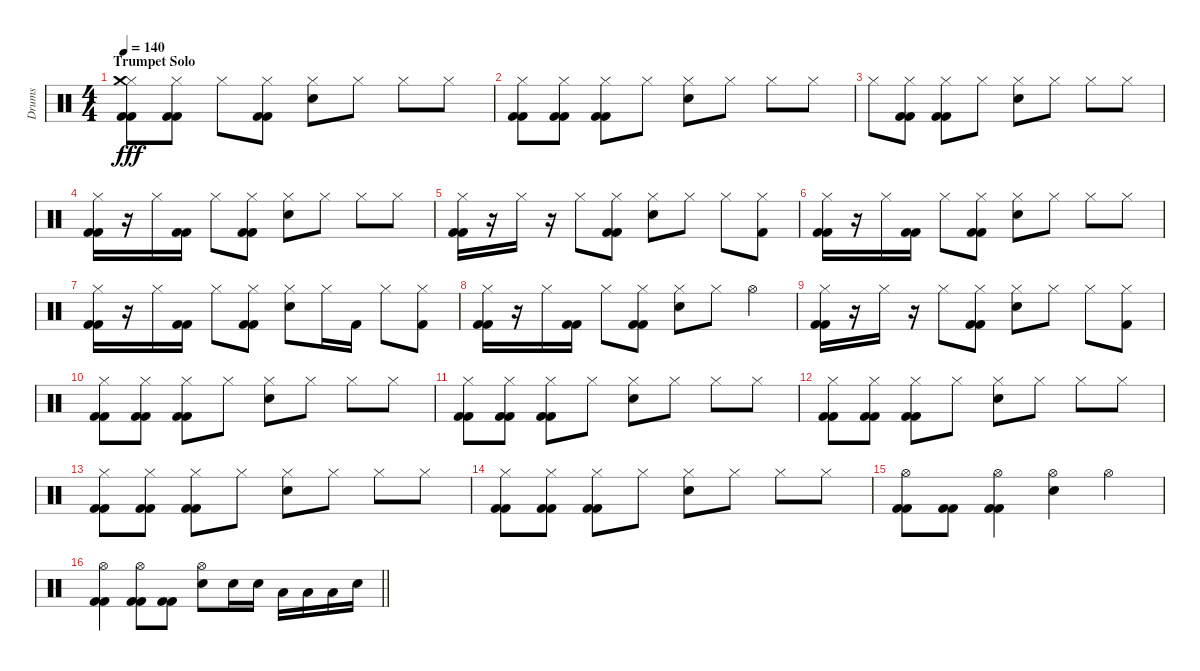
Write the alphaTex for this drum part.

\track ("Drums" "Drums") {instrument percussion}
\staff {score}
\articulation defaults
\ts (4 4)
\section ("" "Trumpet Solo")
\tempo 140
\clef neutral
\ks c
("Hi-Hat (closed)" "Kick (hit) 2" "Kick (hit) 2" "Crash medium (hit)").8{dy fff} ("Hi-Hat (closed)" "Kick (hit) 2" "Kick (hit) 2").8 "Hi-Hat (closed)".8 ("Kick (hit) 2" "Hi-Hat (closed)" "Kick (hit) 2").8 ("Hi-Hat (closed)" "Snare (hit) 2").8 "Hi-Hat (closed)".8 "Hi-Hat (closed)".8 "Hi-Hat (closed)".8 |
("Kick (hit) 2" "Hi-Hat (closed)" "Kick (hit) 2").8 ("Kick (hit) 2" "Hi-Hat (closed)" "Kick (hit) 2").8 ("Kick (hit) 2" "Hi-Hat (closed)" "Kick (hit) 2").8 "Hi-Hat (closed)".8 ("Snare (hit) 2" "Hi-Hat (closed)").8 "Hi-Hat (closed)".8 "Hi-Hat (closed)".8 "Hi-Hat (closed)".8 |
"Hi-Hat (closed)".8 ("Kick (hit) 2" "Hi-Hat (closed)" "Kick (hit) 2").8 ("Kick (hit) 2" "Hi-Hat (closed)" "Kick (hit) 2").8 "Hi-Hat (closed)".8 ("Snare (hit) 2" "Hi-Hat (closed)").8 "Hi-Hat (closed)".8 "Hi-Hat (closed)".8 "Hi-Hat (closed)".8 |
("Kick (hit) 2" "Hi-Hat (closed)" "Kick (hit) 2").16 r.16 "Hi-Hat (closed)".16 ("Kick (hit) 2" "Kick (hit) 2").16 "Hi-Hat (closed)".8 ("Kick (hit) 2" "Kick (hit) 2" "Hi-Hat (closed)").8 ("Snare (hit) 2" "Hi-Hat (closed)").8 "Hi-Hat (closed)".8 "Hi-Hat (closed)".8 "Hi-Hat (closed)".8 |
("Kick (hit) 2" "Hi-Hat (closed)" "Kick (hit) 2").16 r.16 "Hi-Hat (closed)".16 r.16 "Hi-Hat (closed)".8 ("Kick (hit) 2" "Kick (hit) 2" "Hi-Hat (closed)").8 ("Snare (hit) 2" "Hi-Hat (closed)").8 "Hi-Hat (closed)".8 "Hi-Hat (closed)".8 ("Hi-Hat (closed)" "Kick (hit) 2").8 |
("Kick (hit) 2" "Hi-Hat (closed)" "Kick (hit) 2").16 r.16 "Hi-Hat (closed)".16 ("Kick (hit) 2" "Kick (hit) 2").16 "Hi-Hat (closed)".8 ("Kick (hit) 2" "Kick (hit) 2" "Hi-Hat (closed)").8 ("Snare (hit) 2" "Hi-Hat (closed)").8 "Hi-Hat (closed)".8 "Hi-Hat (closed)".8 "Hi-Hat (closed)".8 |
("Kick (hit) 2" "Hi-Hat (closed)" "Kick (hit) 2").16 r.16 "Hi-Hat (closed)".16 ("Kick (hit) 2" "Kick (hit) 2").16 "Hi-Hat (closed)".8 ("Kick (hit) 2" "Kick (hit) 2" "Hi-Hat (closed)").8 ("Snare (hit) 2" "Hi-Hat (closed)").8 "Hi-Hat (closed)".16 "Kick (hit) 2".16 "Hi-Hat (closed)".8 ("Hi-Hat (closed)" "Kick (hit) 2").8 |
("Kick (hit) 2" "Hi-Hat (closed)" "Kick (hit) 2").16 r.16 "Hi-Hat (closed)".16 ("Kick (hit) 2" "Kick (hit) 2").16 "Hi-Hat (closed)".8 ("Kick (hit) 2" "Kick (hit) 2" "Hi-Hat (closed)").8 ("Snare (hit) 2" "Hi-Hat (closed)").8 "Hi-Hat (closed)".8 "Hi-Hat (open)".4 |
("Kick (hit) 2" "Hi-Hat (closed)" "Kick (hit) 2").16 r.16 "Hi-Hat (closed)".16 r.16 "Hi-Hat (closed)".8 ("Kick (hit) 2" "Kick (hit) 2" "Hi-Hat (closed)").8 ("Snare (hit) 2" "Hi-Hat (closed)").8 "Hi-Hat (closed)".8 "Hi-Hat (closed)".8 ("Hi-Hat (closed)" "Kick (hit) 2").8 |
("Kick (hit) 2" "Hi-Hat (closed)" "Kick (hit) 2").8 ("Kick (hit) 2" "Hi-Hat (closed)" "Kick (hit) 2").8 ("Kick (hit) 2" "Hi-Hat (closed)" "Kick (hit) 2").8 "Hi-Hat (closed)".8 ("Snare (hit) 2" "Hi-Hat (closed)").8 "Hi-Hat (closed)".8 "Hi-Hat (closed)".8 "Hi-Hat (closed)".8 |
("Kick (hit) 2" "Hi-Hat (closed)" "Kick (hit) 2").8 ("Kick (hit) 2" "Hi-Hat (closed)" "Kick (hit) 2").8 ("Kick (hit) 2" "Hi-Hat (closed)" "Kick (hit) 2").8 "Hi-Hat (closed)".8 ("Snare (hit) 2" "Hi-Hat (closed)").8 "Hi-Hat (closed)".8 "Hi-Hat (closed)".8 "Hi-Hat (closed)".8 |
("Kick (hit) 2" "Hi-Hat (closed)" "Kick (hit) 2").8 ("Kick (hit) 2" "Hi-Hat (closed)" "Kick (hit) 2").8 ("Kick (hit) 2" "Hi-Hat (closed)" "Kick (hit) 2").8 "Hi-Hat (closed)".8 ("Snare (hit) 2" "Hi-Hat (closed)").8 "Hi-Hat (closed)".8 "Hi-Hat (closed)".8 "Hi-Hat (closed)".8 |
("Kick (hit) 2" "Hi-Hat (closed)" "Kick (hit) 2").8 ("Kick (hit) 2" "Hi-Hat (closed)" "Kick (hit) 2").8 ("Kick (hit) 2" "Hi-Hat (closed)" "Kick (hit) 2").8 "Hi-Hat (closed)".8 ("Snare (hit) 2" "Hi-Hat (closed)").8 "Hi-Hat (closed)".8 "Hi-Hat (closed)".8 "Hi-Hat (closed)".8 |
("Kick (hit) 2" "Hi-Hat (closed)" "Kick (hit) 2").8 ("Kick (hit) 2" "Hi-Hat (closed)" "Kick (hit) 2").8 ("Kick (hit) 2" "Hi-Hat (closed)" "Kick (hit) 2").8 "Hi-Hat (closed)".8 ("Snare (hit) 2" "Hi-Hat (closed)").8 "Hi-Hat (closed)".8 "Hi-Hat (closed)".8 "Hi-Hat (closed)".8 |
("Kick (hit) 2" "Hi-Hat (open)" "Kick (hit) 2").8 ("Kick (hit) 2" "Kick (hit) 2").8 ("Kick (hit) 2" "Hi-Hat (open)" "Kick (hit) 2").4 ("Snare (hit) 2" "Hi-Hat (open)").4 "Hi-Hat (open)".4 |
\barLineRight lightlight
("Kick (hit) 2" "Hi-Hat (open)" "Kick (hit) 2").4 ("Hi-Hat (open)" "Kick (hit) 2" "Kick (hit) 2").8 ("Kick (hit) 2" "Kick (hit) 2").8 ("Snare (hit) 2" "Hi-Hat (open)").8 "Snare (hit) 2".16 "Snare (hit) 2".16 "Low Tom (hit)".16 "Low Tom (hit)".16 "Low Tom (hit)".16 "Snare (hit) 2".16
